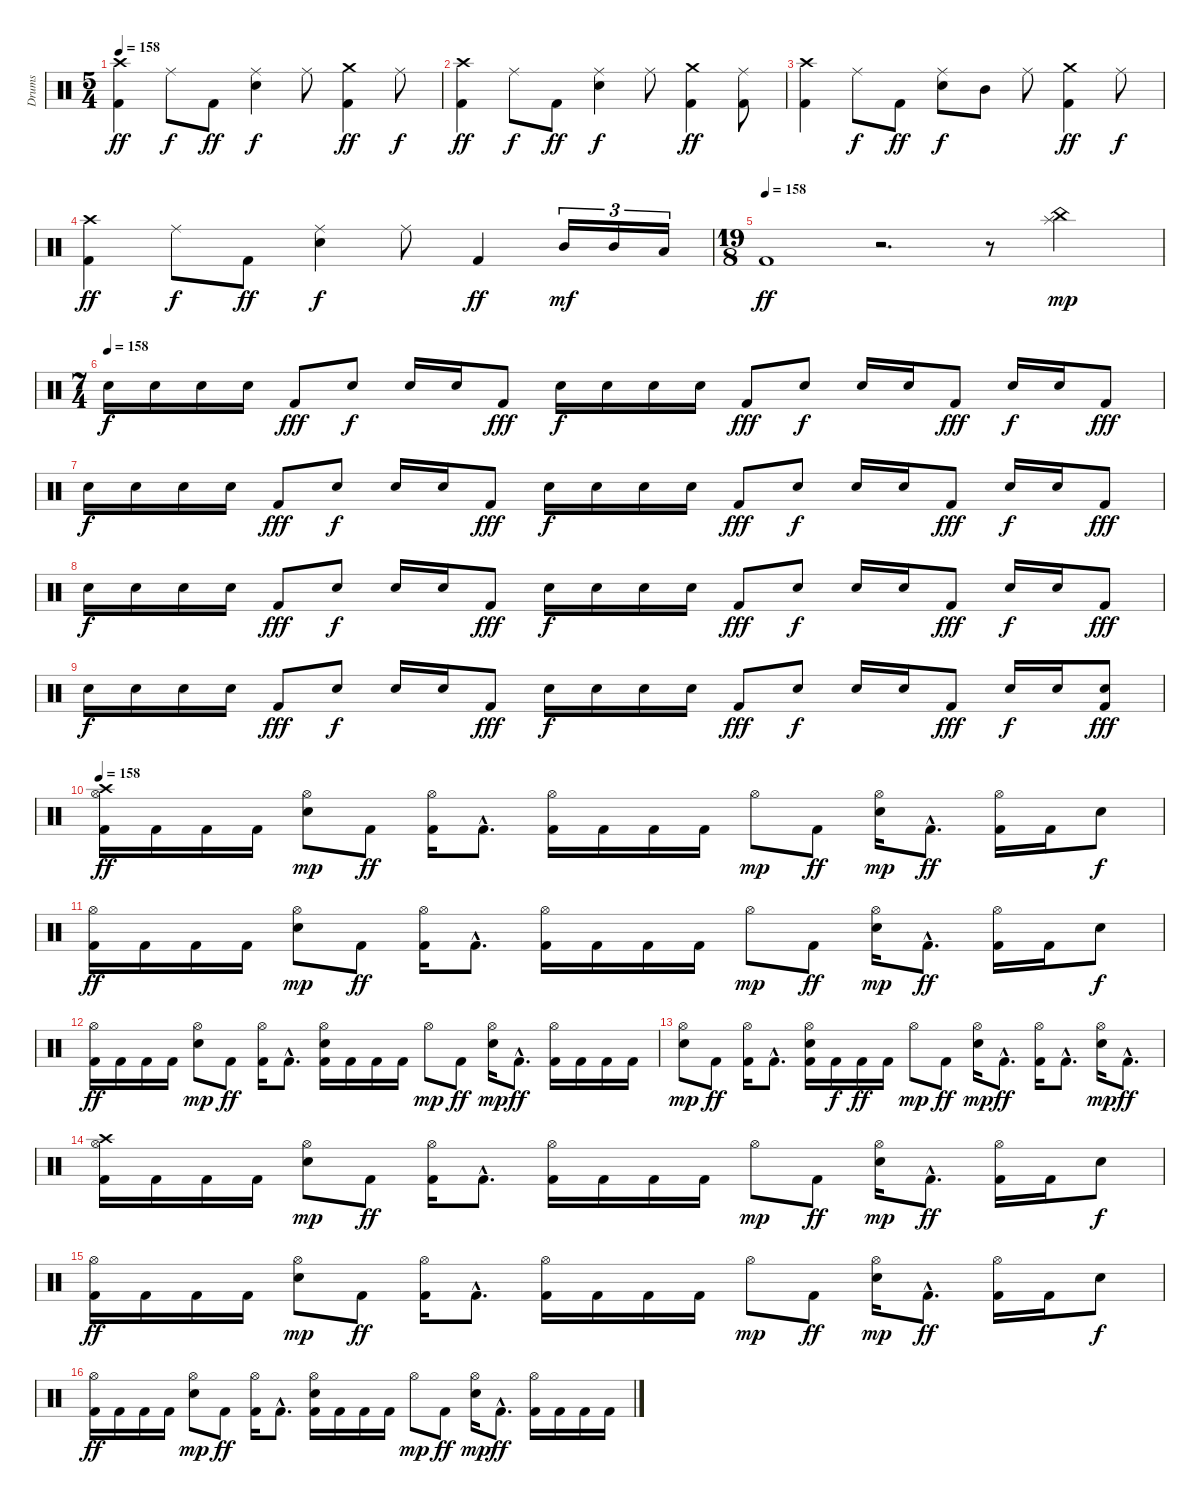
\track ("Drums" "Drums") {instrument percussion}
\staff {score}
\articulation defaults
\ts (5 4)
\tempo 158
\clef neutral
\ks c
("Crash high (hit)" "Kick (hit) 2").4{dy ff} "Ride (middle)".8{dy f} "Kick (hit) 2".8{dy ff} ("Ride (middle)" "Electric Snare (hit)").4{dy f} "Ride (middle)".8 ("Crash medium (hit)" "Kick (hit) 2").4{dy ff} "Ride (middle)".8{dy f} |
("Crash high (hit)" "Kick (hit) 2").4{dy ff} "Ride (middle)".8{dy f} "Kick (hit) 2".8{dy ff} ("Ride (middle)" "Electric Snare (hit)").4{dy f} "Ride (middle)".8 ("Crash medium (hit)" "Kick (hit) 2").4{dy ff} ("Ride (middle)" "Kick (hit) 2").8 |
("Crash high (hit)" "Kick (hit) 2").4 "Ride (middle)".8{dy f} "Kick (hit) 2".8{dy ff} ("Ride (middle)" "Electric Snare (hit)").8{dy f} "Mid Tom (hit)".8 "Ride (middle)".8 ("Crash medium (hit)" "Kick (hit) 2").4{dy ff} "Ride (middle)".8{dy f} |
("Crash high (hit)" "Kick (hit) 2").4{dy ff} "Ride (middle)".8{dy f} "Kick (hit) 2".8{dy ff} ("Ride (middle)" "Electric Snare (hit)").4{dy f} "Ride (middle)".8 "Kick (hit) 2".4{dy ff} "Mid Tom (hit)".16{tu (3 2) dy mf} "Mid Tom (hit)".16{tu (3 2)} "Low Tom (hit)".16{tu (3 2)} |
\ts (19 8)
\tempo (158)
"Kick (hit) 2".1{dy ff} r.2{d} r.8 ("Splash (hit)" "China (hit)").2{dy mp} |
\ts (7 4)
\tempo (158)
"Electric Snare (hit)".16{dy f} "Electric Snare (hit)".16 "Electric Snare (hit)".16 "Electric Snare (hit)".16 "Kick (hit) 2".8{dy fff} "Electric Snare (hit)".8{dy f} "Electric Snare (hit)".16 "Electric Snare (hit)".16 "Kick (hit) 2".8{dy fff} "Electric Snare (hit)".16{dy f} "Electric Snare (hit)".16 "Electric Snare (hit)".16 "Electric Snare (hit)".16 "Kick (hit) 2".8{dy fff} "Electric Snare (hit)".8{dy f} "Electric Snare (hit)".16 "Electric Snare (hit)".16 "Kick (hit) 2".8{dy fff} "Electric Snare (hit)".16{dy f} "Electric Snare (hit)".16 "Kick (hit) 2".8{dy fff} |
"Electric Snare (hit)".16{dy f} "Electric Snare (hit)".16 "Electric Snare (hit)".16 "Electric Snare (hit)".16 "Kick (hit) 2".8{dy fff} "Electric Snare (hit)".8{dy f} "Electric Snare (hit)".16 "Electric Snare (hit)".16 "Kick (hit) 2".8{dy fff} "Electric Snare (hit)".16{dy f} "Electric Snare (hit)".16 "Electric Snare (hit)".16 "Electric Snare (hit)".16 "Kick (hit) 2".8{dy fff} "Electric Snare (hit)".8{dy f} "Electric Snare (hit)".16 "Electric Snare (hit)".16 "Kick (hit) 2".8{dy fff} "Electric Snare (hit)".16{dy f} "Electric Snare (hit)".16 "Kick (hit) 2".8{dy fff} |
"Electric Snare (hit)".16{dy f} "Electric Snare (hit)".16 "Electric Snare (hit)".16 "Electric Snare (hit)".16 "Kick (hit) 2".8{dy fff} "Electric Snare (hit)".8{dy f} "Electric Snare (hit)".16 "Electric Snare (hit)".16 "Kick (hit) 2".8{dy fff} "Electric Snare (hit)".16{dy f} "Electric Snare (hit)".16 "Electric Snare (hit)".16 "Electric Snare (hit)".16 "Kick (hit) 2".8{dy fff} "Electric Snare (hit)".8{dy f} "Electric Snare (hit)".16 "Electric Snare (hit)".16 "Kick (hit) 2".8{dy fff} "Electric Snare (hit)".16{dy f} "Electric Snare (hit)".16 "Kick (hit) 2".8{dy fff} |
"Electric Snare (hit)".16{dy f} "Electric Snare (hit)".16 "Electric Snare (hit)".16 "Electric Snare (hit)".16 "Kick (hit) 2".8{dy fff} "Electric Snare (hit)".8{dy f} "Electric Snare (hit)".16 "Electric Snare (hit)".16 "Kick (hit) 2".8{dy fff} "Electric Snare (hit)".16{dy f} "Electric Snare (hit)".16 "Electric Snare (hit)".16 "Electric Snare (hit)".16 "Kick (hit) 2".8{dy fff} "Electric Snare (hit)".8{dy f} "Electric Snare (hit)".16 "Electric Snare (hit)".16 "Kick (hit) 2".8{dy fff} "Electric Snare (hit)".16{dy f} "Electric Snare (hit)".16 ("Electric Snare (hit)" "Kick (hit) 2").8{dy fff} |
\tempo 158
("Crash high (hit)" "Hi-Hat (open)" "Kick (hit) 2").16{dy ff} "Kick (hit) 2".16 "Kick (hit) 2".16 "Kick (hit) 2".16 ("Hi-Hat (open)" "Electric Snare (hit)").8{dy mp} "Kick (hit) 2".8{dy ff} ("Hi-Hat (open)" "Kick (hit) 2").16 "Kick (hit) 2"{hac}.8{d} ("Hi-Hat (open)" "Kick (hit) 2").16 "Kick (hit) 2".16 "Kick (hit) 2".16 "Kick (hit) 2".16 "Hi-Hat (open)".8{dy mp} "Kick (hit) 2".8{dy ff} ("Hi-Hat (open)" "Electric Snare (hit)").16{dy mp} "Kick (hit) 2"{hac}.8{d dy ff} ("Hi-Hat (open)" "Kick (hit) 2").16 "Kick (hit) 2".16 "Electric Snare (hit)".8{dy f} |
("Hi-Hat (open)" "Kick (hit) 2").16{dy ff} "Kick (hit) 2".16 "Kick (hit) 2".16 "Kick (hit) 2".16 ("Hi-Hat (open)" "Electric Snare (hit)").8{dy mp} "Kick (hit) 2".8{dy ff} ("Hi-Hat (open)" "Kick (hit) 2").16 "Kick (hit) 2"{hac}.8{d} ("Hi-Hat (open)" "Kick (hit) 2").16 "Kick (hit) 2".16 "Kick (hit) 2".16 "Kick (hit) 2".16 "Hi-Hat (open)".8{dy mp} "Kick (hit) 2".8{dy ff} ("Hi-Hat (open)" "Electric Snare (hit)").16{dy mp} "Kick (hit) 2"{hac}.8{d dy ff} ("Hi-Hat (open)" "Kick (hit) 2").16 "Kick (hit) 2".16 "Electric Snare (hit)".8{dy f} |
("Hi-Hat (open)" "Kick (hit) 2").16{dy ff} "Kick (hit) 2".16 "Kick (hit) 2".16 "Kick (hit) 2".16 ("Hi-Hat (open)" "Electric Snare (hit)").8{dy mp} "Kick (hit) 2".8{dy ff} ("Hi-Hat (open)" "Kick (hit) 2").16 "Kick (hit) 2"{hac}.8{d} ("Hi-Hat (open)" "Electric Snare (hit)" "Kick (hit) 2").16 "Kick (hit) 2".16 "Kick (hit) 2".16 "Kick (hit) 2".16 "Hi-Hat (open)".8{dy mp} "Kick (hit) 2".8{dy ff} ("Hi-Hat (open)" "Electric Snare (hit)").16{dy mp} "Kick (hit) 2"{hac}.8{d dy ff} ("Hi-Hat (open)" "Kick (hit) 2").16 "Kick (hit) 2".16 "Kick (hit) 2".16 "Kick (hit) 2".16 |
("Hi-Hat (open)" "Electric Snare (hit)").8{dy mp} "Kick (hit) 2".8{dy ff} ("Hi-Hat (open)" "Kick (hit) 2").16 "Kick (hit) 2"{hac}.8{d} ("Hi-Hat (open)" "Electric Snare (hit)" "Kick (hit) 2").16 "Kick (hit) 2".16{dy f} "Kick (hit) 2".16{dy ff} "Kick (hit) 2".16 "Hi-Hat (open)".8{dy mp} "Kick (hit) 2".8{dy ff} ("Hi-Hat (open)" "Electric Snare (hit)").16{dy mp} "Kick (hit) 2"{hac}.8{d dy ff} ("Hi-Hat (open)" "Kick (hit) 2").16 "Kick (hit) 2"{hac}.8{d} ("Hi-Hat (open)" "Electric Snare (hit)").16{dy mp} "Kick (hit) 2"{hac}.8{d dy ff} |
("Crash high (hit)" "Hi-Hat (open)" "Kick (hit) 2").16 "Kick (hit) 2".16 "Kick (hit) 2".16 "Kick (hit) 2".16 ("Hi-Hat (open)" "Electric Snare (hit)").8{dy mp} "Kick (hit) 2".8{dy ff} ("Hi-Hat (open)" "Kick (hit) 2").16 "Kick (hit) 2"{hac}.8{d} ("Hi-Hat (open)" "Kick (hit) 2").16 "Kick (hit) 2".16 "Kick (hit) 2".16 "Kick (hit) 2".16 "Hi-Hat (open)".8{dy mp} "Kick (hit) 2".8{dy ff} ("Hi-Hat (open)" "Electric Snare (hit)").16{dy mp} "Kick (hit) 2"{hac}.8{d dy ff} ("Hi-Hat (open)" "Kick (hit) 2").16 "Kick (hit) 2".16 "Electric Snare (hit)".8{dy f} |
("Hi-Hat (open)" "Kick (hit) 2").16{dy ff} "Kick (hit) 2".16 "Kick (hit) 2".16 "Kick (hit) 2".16 ("Hi-Hat (open)" "Electric Snare (hit)").8{dy mp} "Kick (hit) 2".8{dy ff} ("Hi-Hat (open)" "Kick (hit) 2").16 "Kick (hit) 2"{hac}.8{d} ("Hi-Hat (open)" "Kick (hit) 2").16 "Kick (hit) 2".16 "Kick (hit) 2".16 "Kick (hit) 2".16 "Hi-Hat (open)".8{dy mp} "Kick (hit) 2".8{dy ff} ("Hi-Hat (open)" "Electric Snare (hit)").16{dy mp} "Kick (hit) 2"{hac}.8{d dy ff} ("Hi-Hat (open)" "Kick (hit) 2").16 "Kick (hit) 2".16 "Electric Snare (hit)".8{dy f} |
("Hi-Hat (open)" "Kick (hit) 2").16{dy ff} "Kick (hit) 2".16 "Kick (hit) 2".16 "Kick (hit) 2".16 ("Hi-Hat (open)" "Electric Snare (hit)").8{dy mp} "Kick (hit) 2".8{dy ff} ("Hi-Hat (open)" "Kick (hit) 2").16 "Kick (hit) 2"{hac}.8{d} ("Hi-Hat (open)" "Electric Snare (hit)" "Kick (hit) 2").16 "Kick (hit) 2".16 "Kick (hit) 2".16 "Kick (hit) 2".16 "Hi-Hat (open)".8{dy mp} "Kick (hit) 2".8{dy ff} ("Hi-Hat (open)" "Electric Snare (hit)").16{dy mp} "Kick (hit) 2"{hac}.8{d dy ff} ("Hi-Hat (open)" "Kick (hit) 2").16 "Kick (hit) 2".16 "Kick (hit) 2".16 "Kick (hit) 2".16
